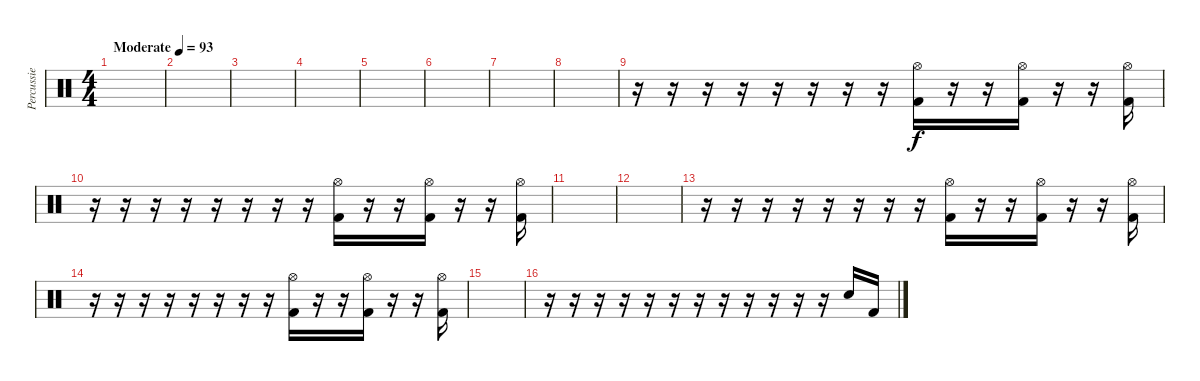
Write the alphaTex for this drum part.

\track ("Percussie" "Percussie") {instrument percussion}
\staff {score}
\articulation defaults
\ts (4 4)
\tempo (93 "Moderate")
\clef neutral
\ks c
|
|
|
|
|
|
|
|
r.16 r.16 r.16 r.16 r.16 r.16 r.16 r.16 ("Hi-Hat (open)" "Kick (hit) 2").16 r.16 r.16 ("Hi-Hat (open)" "Kick (hit) 2").16 r.16 r.16 ("Hi-Hat (open)" "Kick (hit) 2").16 |
r.16 r.16 r.16 r.16 r.16 r.16 r.16 r.16 ("Hi-Hat (open)" "Kick (hit) 2").16 r.16 r.16 ("Hi-Hat (open)" "Kick (hit) 2").16 r.16 r.16 ("Hi-Hat (open)" "Kick (hit) 2").16 |
|
|
r.16 r.16 r.16 r.16 r.16 r.16 r.16 r.16 ("Hi-Hat (open)" "Kick (hit) 2").16 r.16 r.16 ("Hi-Hat (open)" "Kick (hit) 2").16 r.16 r.16 ("Hi-Hat (open)" "Kick (hit) 2").16 |
r.16 r.16 r.16 r.16 r.16 r.16 r.16 r.16 ("Hi-Hat (open)" "Kick (hit) 2").16 r.16 r.16 ("Hi-Hat (open)" "Kick (hit) 2").16 r.16 r.16 ("Hi-Hat (open)" "Kick (hit) 2").16 |
|
r.16 r.16 r.16 r.16 r.16 r.16 r.16 r.16 r.16 r.16 r.16 r.16 "Electric Snare (hit)".16 "Kick (hit) 2".16
